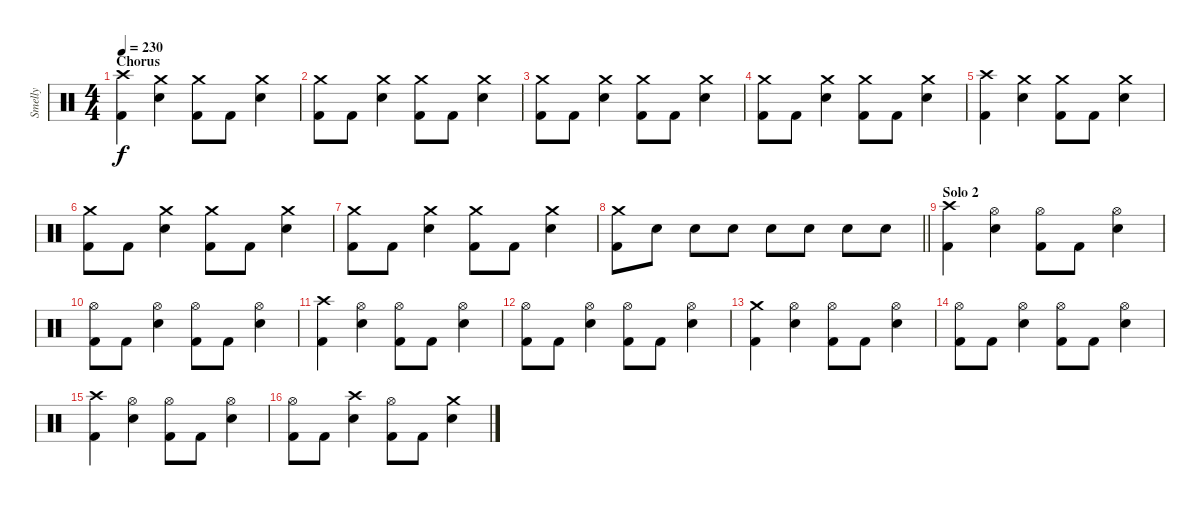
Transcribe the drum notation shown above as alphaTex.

\track ("Smelly" "Smelly") {instrument percussion}
\staff {score}
\articulation defaults
\ts (4 4)
\section ("" "Chorus")
\tempo 230
\clef neutral
\ks c
("Crash high (hit)" "Kick (hit) 2").4{dy f} ("Crash medium (hit)" "Snare (hit) 2").4 ("Crash medium (hit)" "Kick (hit) 2").8 "Kick (hit) 2".8 ("Crash medium (hit)" "Snare (hit) 2").4 |
("Crash medium (hit)" "Kick (hit) 2").8 "Kick (hit) 2".8 ("Crash medium (hit)" "Snare (hit) 2").4 ("Crash medium (hit)" "Kick (hit) 2").8 "Kick (hit) 2".8 ("Crash medium (hit)" "Snare (hit) 2").4 |
("Crash medium (hit)" "Kick (hit) 2").8 "Kick (hit) 2".8 ("Crash medium (hit)" "Snare (hit) 2").4 ("Crash medium (hit)" "Kick (hit) 2").8 "Kick (hit) 2".8 ("Crash medium (hit)" "Snare (hit) 2").4 |
("Crash medium (hit)" "Kick (hit) 2").8 "Kick (hit) 2".8 ("Crash medium (hit)" "Snare (hit) 2").4 ("Crash medium (hit)" "Kick (hit) 2").8 "Kick (hit) 2".8 ("Crash medium (hit)" "Snare (hit) 2").4 |
("Crash high (hit)" "Kick (hit) 2").4 ("Crash medium (hit)" "Snare (hit) 2").4 ("Crash medium (hit)" "Kick (hit) 2").8 "Kick (hit) 2".8 ("Crash medium (hit)" "Snare (hit) 2").4 |
("Crash medium (hit)" "Kick (hit) 2").8 "Kick (hit) 2".8 ("Crash medium (hit)" "Snare (hit) 2").4 ("Crash medium (hit)" "Kick (hit) 2").8 "Kick (hit) 2".8 ("Crash medium (hit)" "Snare (hit) 2").4 |
("Crash medium (hit)" "Kick (hit) 2").8 "Kick (hit) 2".8 ("Crash medium (hit)" "Snare (hit) 2").4 ("Crash medium (hit)" "Kick (hit) 2").8 "Kick (hit) 2".8 ("Crash medium (hit)" "Snare (hit) 2").4 |
\barLineRight lightlight
("Crash medium (hit)" "Kick (hit) 2").8 "Snare (hit) 2".8 "Snare (hit) 2".8 "Snare (hit) 2".8 "Snare (hit) 2".8 "Snare (hit) 2".8 "Snare (hit) 2".8 "Snare (hit) 2".8 |
\section ("" "Solo 2")
("Crash high (hit)" "Kick (hit) 2").4 ("Hi-Hat (open)" "Snare (hit) 2").4 ("Hi-Hat (open)" "Kick (hit) 2").8 "Kick (hit) 2".8 ("Hi-Hat (open)" "Snare (hit) 2").4 |
("Hi-Hat (open)" "Kick (hit) 2").8 "Kick (hit) 2".8 ("Hi-Hat (open)" "Snare (hit) 2").4 ("Hi-Hat (open)" "Kick (hit) 2").8 "Kick (hit) 2".8 ("Hi-Hat (open)" "Snare (hit) 2").4 |
("Crash high (hit)" "Kick (hit) 2").4 ("Hi-Hat (open)" "Snare (hit) 2").4 ("Hi-Hat (open)" "Kick (hit) 2").8 "Kick (hit) 2".8 ("Hi-Hat (open)" "Snare (hit) 2").4 |
("Hi-Hat (open)" "Kick (hit) 2").8 "Kick (hit) 2".8 ("Hi-Hat (open)" "Snare (hit) 2").4 ("Hi-Hat (open)" "Kick (hit) 2").8 "Kick (hit) 2".8 ("Hi-Hat (open)" "Snare (hit) 2").4 |
("Crash medium (hit)" "Kick (hit) 2").4 ("Hi-Hat (open)" "Snare (hit) 2").4 ("Hi-Hat (open)" "Kick (hit) 2").8 "Kick (hit) 2".8 ("Hi-Hat (open)" "Snare (hit) 2").4 |
("Hi-Hat (open)" "Kick (hit) 2").8 "Kick (hit) 2".8 ("Hi-Hat (open)" "Snare (hit) 2").4 ("Hi-Hat (open)" "Kick (hit) 2").8 "Kick (hit) 2".8 ("Hi-Hat (open)" "Snare (hit) 2").4 |
("Crash high (hit)" "Kick (hit) 2").4 ("Hi-Hat (open)" "Snare (hit) 2").4 ("Hi-Hat (open)" "Kick (hit) 2").8 "Kick (hit) 2".8 ("Hi-Hat (open)" "Snare (hit) 2").4 |
("Hi-Hat (open)" "Kick (hit) 2").8 "Kick (hit) 2".8 ("Crash high (hit)" "Snare (hit) 2").4 ("Hi-Hat (open)" "Kick (hit) 2").8 "Kick (hit) 2".8 ("Crash medium (hit)" "Snare (hit) 2").4
